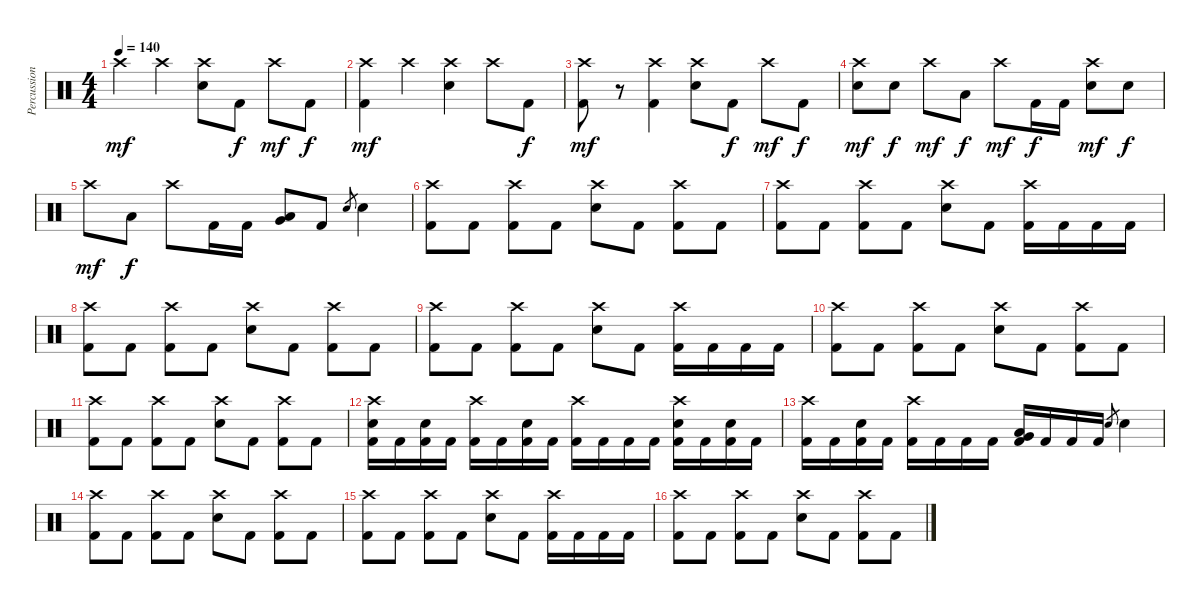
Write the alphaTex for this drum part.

\track ("Percussion" "Percussion") {instrument percussion}
\staff {score}
\articulation defaults
\ts (4 4)
\tempo 140
\clef neutral
\ks c "Crash high (hit)".4{dy mf} "Crash high (hit)".4
("Crash high (hit)" "Snare (hit) 2").8 "Kick (hit) 2".8{dy f} "Crash high (hit)".8{dy mf} "Kick (hit) 2".8{dy f} |
("Crash high (hit)" "Kick (hit) 2").4{dy mf} "Crash high (hit)".4 ("Crash high (hit)" "Snare (hit) 2").4 "Crash high (hit)".8 "Kick (hit) 2".8{dy f} |
("Crash high (hit)" "Kick (hit) 2").8{dy mf} r.8 ("Crash high (hit)" "Kick (hit) 2").4 ("Crash high (hit)" "Snare (hit) 2").8 "Kick (hit) 2".8{dy f} "Crash high (hit)".8{dy mf} "Kick (hit) 2".8{dy f} |
("Crash high (hit)" "Snare (hit) 2").8{dy mf} "Snare (hit) 2".8{dy f} "Crash high (hit)".8{dy mf} "Low Tom (hit)".8{dy f} "Crash high (hit)".8{dy mf} "Kick (hit) 2".16{dy f} "Kick (hit) 2".16 ("Crash high (hit)" "Snare (hit) 2").8{dy mf} "Snare (hit) 2".8{dy f} |
"Crash high (hit)".8{dy mf} "Low Tom (hit)".8{dy f} "Crash high (hit)".8 "Kick (hit) 2".16 "Kick (hit) 2".16 ("Low Tom (hit)" "Very Low Tom (hit)").8 "Kick (hit) 2".8 "Snare (hit) 2".8{gr} "Snare (hit) 2".4 |
("Crash high (hit)" "Kick (hit) 2").8 "Kick (hit) 2".8 ("Crash high (hit)" "Kick (hit) 2").8 "Kick (hit) 2".8 ("Crash high (hit)" "Snare (hit) 2").8 "Kick (hit) 2".8 ("Crash high (hit)" "Kick (hit) 2").8 "Kick (hit) 2".8 |
("Crash high (hit)" "Kick (hit) 2").8 "Kick (hit) 2".8 ("Crash high (hit)" "Kick (hit) 2").8 "Kick (hit) 2".8 ("Crash high (hit)" "Snare (hit) 2").8 "Kick (hit) 2".8 ("Crash high (hit)" "Kick (hit) 2").16 "Kick (hit) 2".16 "Kick (hit) 2".16 "Kick (hit) 2".16 |
("Crash high (hit)" "Kick (hit) 2").8 "Kick (hit) 2".8 ("Crash high (hit)" "Kick (hit) 2").8 "Kick (hit) 2".8 ("Crash high (hit)" "Snare (hit) 2").8 "Kick (hit) 2".8 ("Crash high (hit)" "Kick (hit) 2").8 "Kick (hit) 2".8 |
("Crash high (hit)" "Kick (hit) 2").8 "Kick (hit) 2".8 ("Crash high (hit)" "Kick (hit) 2").8 "Kick (hit) 2".8 ("Crash high (hit)" "Snare (hit) 2").8 "Kick (hit) 2".8 ("Crash high (hit)" "Kick (hit) 2").16 "Kick (hit) 2".16 "Kick (hit) 2".16 "Kick (hit) 2".16 |
("Crash high (hit)" "Kick (hit) 2").8 "Kick (hit) 2".8 ("Crash high (hit)" "Kick (hit) 2").8 "Kick (hit) 2".8 ("Crash high (hit)" "Snare (hit) 2").8 "Kick (hit) 2".8 ("Crash high (hit)" "Kick (hit) 2").8 "Kick (hit) 2".8 |
("Crash high (hit)" "Kick (hit) 2").8 "Kick (hit) 2".8 ("Crash high (hit)" "Kick (hit) 2").8 "Kick (hit) 2".8 ("Crash high (hit)" "Snare (hit) 2").8 "Kick (hit) 2".8 ("Crash high (hit)" "Kick (hit) 2").8 "Kick (hit) 2".8 |
("Crash high (hit)" "Snare (hit) 2" "Kick (hit) 2").16 "Kick (hit) 2".16 ("Snare (hit) 2" "Kick (hit) 2").16 "Kick (hit) 2".16 ("Crash high (hit)" "Kick (hit) 2").16 "Kick (hit) 2".16 ("Snare (hit) 2" "Kick (hit) 2").16 "Kick (hit) 2".16 ("Crash high (hit)" "Kick (hit) 2").16 "Kick (hit) 2".16 "Kick (hit) 2".16 "Kick (hit) 2".16 ("Crash high (hit)" "Snare (hit) 2" "Kick (hit) 2").16 "Kick (hit) 2".16 ("Snare (hit) 2" "Kick (hit) 2").16 "Kick (hit) 2".16 |
("Crash high (hit)" "Kick (hit) 2").16 "Kick (hit) 2".16 ("Snare (hit) 2" "Kick (hit) 2").16 "Kick (hit) 2".16 ("Crash high (hit)" "Kick (hit) 2").16 "Kick (hit) 2".16 "Kick (hit) 2".16 "Kick (hit) 2".16 ("Low Tom (hit)" "Very Low Tom (hit)" "Kick (hit) 2").16 "Kick (hit) 2".16 "Kick (hit) 2".16 "Kick (hit) 2".16 "Snare (hit) 2".8{gr} "Snare (hit) 2".4 |
("Crash high (hit)" "Kick (hit) 2").8 "Kick (hit) 2".8 ("Crash high (hit)" "Kick (hit) 2").8 "Kick (hit) 2".8 ("Crash high (hit)" "Snare (hit) 2").8 "Kick (hit) 2".8 ("Crash high (hit)" "Kick (hit) 2").8 "Kick (hit) 2".8 |
("Crash high (hit)" "Kick (hit) 2").8 "Kick (hit) 2".8 ("Crash high (hit)" "Kick (hit) 2").8 "Kick (hit) 2".8 ("Crash high (hit)" "Snare (hit) 2").8 "Kick (hit) 2".8 ("Crash high (hit)" "Kick (hit) 2").16 "Kick (hit) 2".16 "Kick (hit) 2".16 "Kick (hit) 2".16 |
("Crash high (hit)" "Kick (hit) 2").8 "Kick (hit) 2".8 ("Crash high (hit)" "Kick (hit) 2").8 "Kick (hit) 2".8 ("Crash high (hit)" "Snare (hit) 2").8 "Kick (hit) 2".8 ("Crash high (hit)" "Kick (hit) 2").8 "Kick (hit) 2".8
